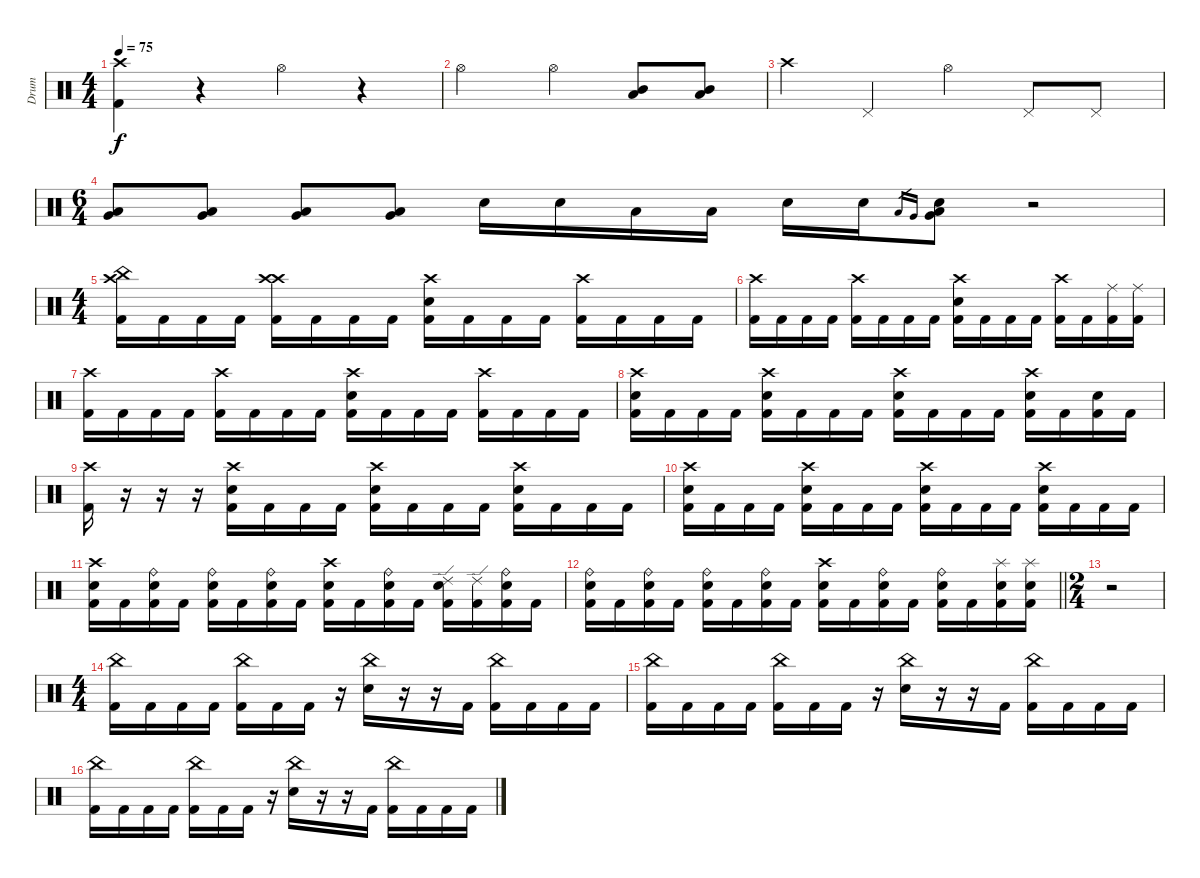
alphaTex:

\track ("Drum" "Drum") {instrument percussion}
\staff {score}
\articulation defaults
\ts (4 4)
\tempo 75
\clef neutral
\ks c
("Crash high (hit)" "Kick (hit) 2").4{dy f} r.4 "Hi-Hat (open)".4 r.4 |
"Hi-Hat (open)".2 "Hi-Hat (open)".4 ("Low Tom (hit)" "Mid Tom (hit)").8 ("Low Tom (hit)" "Mid Tom (hit)").8 |
"Crash high (hit)".4 "Pedal Hi-Hat (hit)".4 "Hi-Hat (open)".4 "Pedal Hi-Hat (hit)".8 "Pedal Hi-Hat (hit)".8 |
\ts (6 4)
("Very Low Tom (hit)" "Low Tom (hit)").8 ("Very Low Tom (hit)" "Low Tom (hit)").8 ("Very Low Tom (hit)" "Low Tom (hit)").8 ("Very Low Tom (hit)" "Low Tom (hit)").8 "Electric Snare (hit)".16 "Electric Snare (hit)".16 "Low Tom (hit)".16 "Low Tom (hit)".16 "Electric Snare (hit)".16 "Electric Snare (hit)".16 "Low Tom (hit)".16{gr} "Very Low Tom (hit)".16{gr} ("Electric Snare (hit)" "Low Tom (hit)" "Very Low Tom (hit)").8 r.2 |
\ts (4 4)
("China (hit)" "Crash high (hit)" "Kick (hit) 2").16 "Kick (hit) 2".16 "Kick (hit) 2".16 "Kick (hit) 2".16 ("Crash high (hit)" "Crash high (hit)" "Kick (hit) 2").16 "Kick (hit) 2".16 "Kick (hit) 2".16 "Kick (hit) 2".16 ("Crash high (hit)" "Electric Snare (hit)" "Kick (hit) 2").16 "Kick (hit) 2".16 "Kick (hit) 2".16 "Kick (hit) 2".16 ("Crash high (hit)" "Kick (hit) 2").16 "Kick (hit) 2".16 "Kick (hit) 2".16 "Kick (hit) 2".16 |
("Crash high (hit)" "Kick (hit) 2").16 "Kick (hit) 2".16 "Kick (hit) 2".16 "Kick (hit) 2".16 ("Crash high (hit)" "Kick (hit) 2").16 "Kick (hit) 2".16 "Kick (hit) 2".16 "Kick (hit) 2".16 ("Crash high (hit)" "Electric Snare (hit)" "Kick (hit) 2").16 "Kick (hit) 2".16 "Kick (hit) 2".16 "Kick (hit) 2".16 ("Crash high (hit)" "Kick (hit) 2").16 "Kick (hit) 2".16 ("Ride (middle)" "Kick (hit) 2").16 ("Ride (middle)" "Kick (hit) 2").16 |
("Crash high (hit)" "Kick (hit) 2").16 "Kick (hit) 2".16 "Kick (hit) 2".16 "Kick (hit) 2".16 ("Crash high (hit)" "Kick (hit) 2").16 "Kick (hit) 2".16 "Kick (hit) 2".16 "Kick (hit) 2".16 ("Crash high (hit)" "Electric Snare (hit)" "Kick (hit) 2").16 "Kick (hit) 2".16 "Kick (hit) 2".16 "Kick (hit) 2".16 ("Crash high (hit)" "Kick (hit) 2").16 "Kick (hit) 2".16 "Kick (hit) 2".16 "Kick (hit) 2".16 |
("Crash high (hit)" "Electric Snare (hit)" "Kick (hit) 2").16 "Kick (hit) 2".16 "Kick (hit) 2".16 "Kick (hit) 2".16 ("Crash high (hit)" "Electric Snare (hit)" "Kick (hit) 2").16 "Kick (hit) 2".16 "Kick (hit) 2".16 "Kick (hit) 2".16 ("Crash high (hit)" "Electric Snare (hit)" "Kick (hit) 2").16 "Kick (hit) 2".16 "Kick (hit) 2".16 "Kick (hit) 2".16 ("Crash high (hit)" "Electric Snare (hit)" "Kick (hit) 2").16 "Kick (hit) 2".16 ("Electric Snare (hit)" "Kick (hit) 2").16 "Kick (hit) 2".16 |
("Crash high (hit)" "Kick (hit) 2").16 r.16 r.16 r.16 ("Crash high (hit)" "Electric Snare (hit)" "Kick (hit) 2").16 "Kick (hit) 2".16 "Kick (hit) 2".16 "Kick (hit) 2".16 ("Crash high (hit)" "Electric Snare (hit)" "Kick (hit) 2").16 "Kick (hit) 2".16 "Kick (hit) 2".16 "Kick (hit) 2".16 ("Crash high (hit)" "Electric Snare (hit)" "Kick (hit) 2").16 "Kick (hit) 2".16 "Kick (hit) 2".16 "Kick (hit) 2".16 |
("Crash high (hit)" "Electric Snare (hit)" "Kick (hit) 2").16 "Kick (hit) 2".16 "Kick (hit) 2".16 "Kick (hit) 2".16 ("Crash high (hit)" "Electric Snare (hit)" "Kick (hit) 2").16 "Kick (hit) 2".16 "Kick (hit) 2".16 "Kick (hit) 2".16 ("Crash high (hit)" "Electric Snare (hit)" "Kick (hit) 2").16 "Kick (hit) 2".16 "Kick (hit) 2".16 "Kick (hit) 2".16 ("Crash high (hit)" "Electric Snare (hit)" "Kick (hit) 2").16 "Kick (hit) 2".16 "Kick (hit) 2".16 "Kick (hit) 2".16 |
("Crash high (hit)" "Electric Snare (hit)" "Kick (hit) 2").16 "Kick (hit) 2".16 ("Ride (bell)" "Electric Snare (hit)" "Kick (hit) 2").16 "Kick (hit) 2".16 ("Ride (bell)" "Electric Snare (hit)" "Kick (hit) 2").16 "Kick (hit) 2".16 ("Ride (bell)" "Electric Snare (hit)" "Kick (hit) 2").16 "Kick (hit) 2".16 ("Crash high (hit)" "Electric Snare (hit)" "Kick (hit) 2").16 "Kick (hit) 2".16 ("Ride (bell)" "Electric Snare (hit)" "Kick (hit) 2").16 "Kick (hit) 2".16 ("Ride (edge) 2" "Electric Snare (hit)" "Kick (hit) 2").16 ("Ride (edge) 2" "Kick (hit) 2").16 ("Ride (bell)" "Electric Snare (hit)" "Kick (hit) 2").16 "Kick (hit) 2".16 |
\barLineRight lightlight
("Ride (bell)" "Electric Snare (hit)" "Kick (hit) 2").16 "Kick (hit) 2".16 ("Ride (bell)" "Electric Snare (hit)" "Kick (hit) 2").16 "Kick (hit) 2".16 ("Ride (bell)" "Electric Snare (hit)" "Kick (hit) 2").16 "Kick (hit) 2".16 ("Ride (bell)" "Electric Snare (hit)" "Kick (hit) 2").16 "Kick (hit) 2".16 ("Crash high (hit)" "Electric Snare (hit)" "Kick (hit) 2").16 "Kick (hit) 2".16 ("Ride (bell)" "Electric Snare (hit)" "Kick (hit) 2").16 "Kick (hit) 2".16 ("Ride (bell)" "Electric Snare (hit)" "Kick (hit) 2").16 "Kick (hit) 2".16 ("Splash (hit)" "Electric Snare (hit)" "Kick (hit) 2").16 ("Splash (hit)" "Electric Snare (hit)" "Kick (hit) 2").16 |
\ts (2 4)
\section ("" "")
r.2 |
\ts (4 4)
("China (hit)" "Kick (hit) 2").16 "Kick (hit) 2".16 "Kick (hit) 2".16 "Kick (hit) 2".16 ("China (hit)" "Kick (hit) 2").16 "Kick (hit) 2".16 "Kick (hit) 2".16 r.16 ("China (hit)" "Electric Snare (hit)").16 r.16 r.16 "Kick (hit) 2".16 ("China (hit)" "Kick (hit) 2").16 "Kick (hit) 2".16 "Kick (hit) 2".16 "Kick (hit) 2".16 |
("China (hit)" "Kick (hit) 2").16 "Kick (hit) 2".16 "Kick (hit) 2".16 "Kick (hit) 2".16 ("China (hit)" "Kick (hit) 2").16 "Kick (hit) 2".16 "Kick (hit) 2".16 r.16 ("China (hit)" "Electric Snare (hit)").16 r.16 r.16 "Kick (hit) 2".16 ("China (hit)" "Kick (hit) 2").16 "Kick (hit) 2".16 "Kick (hit) 2".16 "Kick (hit) 2".16 |
("China (hit)" "Kick (hit) 2").16 "Kick (hit) 2".16 "Kick (hit) 2".16 "Kick (hit) 2".16 ("China (hit)" "Kick (hit) 2").16 "Kick (hit) 2".16 "Kick (hit) 2".16 r.16 ("China (hit)" "Electric Snare (hit)").16 r.16 r.16 "Kick (hit) 2".16 ("China (hit)" "Kick (hit) 2").16 "Kick (hit) 2".16 "Kick (hit) 2".16 "Kick (hit) 2".16
